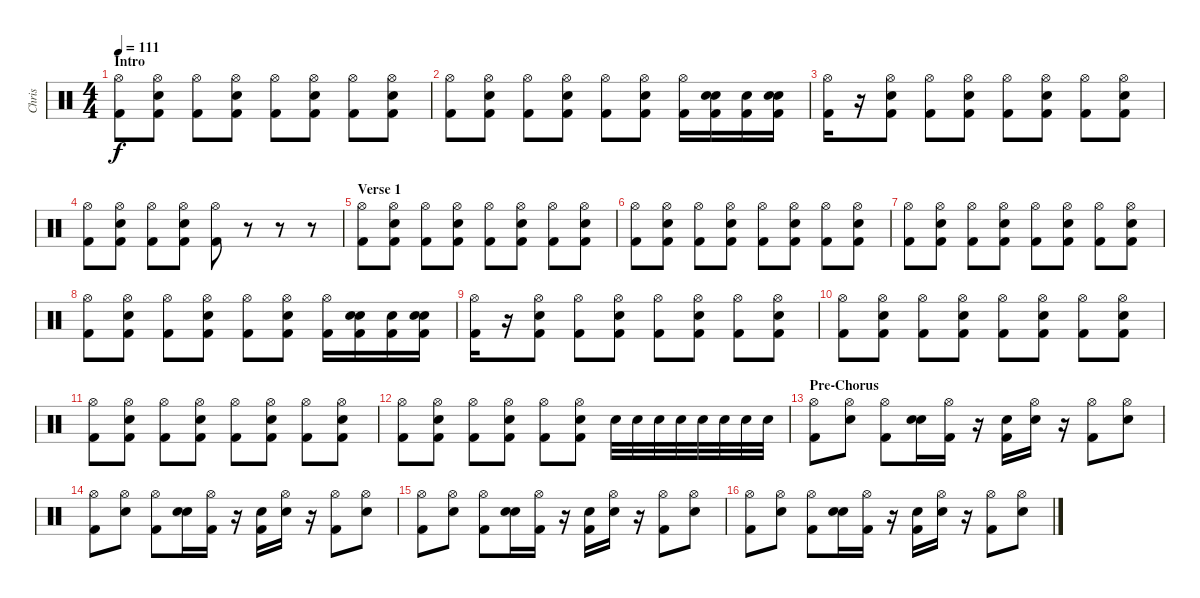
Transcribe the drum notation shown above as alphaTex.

\track ("Chris" "Chris") {instrument percussion}
\staff {score}
\articulation defaults
\ts (4 4)
\section ("" "Intro")
\tempo 111
\clef neutral
\ks c
("Hi-Hat (open)" "Kick (hit) 2").8{dy f} ("Hi-Hat (open)" "Snare (hit) 2" "Kick (hit) 2").8 ("Hi-Hat (open)" "Kick (hit) 2").8 ("Hi-Hat (open)" "Snare (hit) 2" "Kick (hit) 2").8 ("Hi-Hat (open)" "Kick (hit) 2").8 ("Hi-Hat (open)" "Snare (hit) 2" "Kick (hit) 2").8 ("Hi-Hat (open)" "Kick (hit) 2").8 ("Hi-Hat (open)" "Snare (hit) 2" "Kick (hit) 2").8 |
("Hi-Hat (open)" "Kick (hit) 2").8 ("Hi-Hat (open)" "Snare (hit) 2" "Kick (hit) 2").8 ("Hi-Hat (open)" "Kick (hit) 2").8 ("Hi-Hat (open)" "Snare (hit) 2" "Kick (hit) 2").8 ("Hi-Hat (open)" "Kick (hit) 2").8 ("Hi-Hat (open)" "Snare (hit) 2" "Kick (hit) 2").8 ("Hi-Hat (open)" "Kick (hit) 2").16 ("Snare (hit)" "Snare (hit) 2" "Kick (hit) 2").16 ("Snare (hit)" "Kick (hit) 2").16 ("Snare (hit)" "Snare (hit) 2" "Kick (hit) 2").16 |
("Hi-Hat (open)" "Kick (hit) 2").16 r.16 ("Hi-Hat (open)" "Snare (hit) 2" "Kick (hit) 2").8 ("Hi-Hat (open)" "Kick (hit) 2").8 ("Hi-Hat (open)" "Snare (hit) 2" "Kick (hit) 2").8 ("Hi-Hat (open)" "Kick (hit) 2").8 ("Hi-Hat (open)" "Snare (hit) 2" "Kick (hit) 2").8 ("Hi-Hat (open)" "Kick (hit) 2").8 ("Hi-Hat (open)" "Snare (hit) 2" "Kick (hit) 2").8 |
("Hi-Hat (open)" "Kick (hit) 2").8 ("Hi-Hat (open)" "Snare (hit) 2" "Kick (hit) 2").8 ("Hi-Hat (open)" "Kick (hit) 2").8 ("Hi-Hat (open)" "Snare (hit) 2" "Kick (hit) 2").8 ("Hi-Hat (open)" "Kick (hit) 2").8 r.8 r.8 r.8 |
\section ("" "Verse 1")
("Hi-Hat (open)" "Kick (hit) 2").8 ("Hi-Hat (open)" "Snare (hit) 2" "Kick (hit) 2").8 ("Hi-Hat (open)" "Kick (hit) 2").8 ("Hi-Hat (open)" "Snare (hit) 2" "Kick (hit) 2").8 ("Hi-Hat (open)" "Kick (hit) 2").8 ("Hi-Hat (open)" "Snare (hit) 2" "Kick (hit) 2").8 ("Hi-Hat (open)" "Kick (hit) 2").8 ("Hi-Hat (open)" "Snare (hit) 2" "Kick (hit) 2").8 |
("Hi-Hat (open)" "Kick (hit) 2").8 ("Hi-Hat (open)" "Snare (hit) 2" "Kick (hit) 2").8 ("Hi-Hat (open)" "Kick (hit) 2").8 ("Hi-Hat (open)" "Snare (hit) 2" "Kick (hit) 2").8 ("Hi-Hat (open)" "Kick (hit) 2").8 ("Hi-Hat (open)" "Snare (hit) 2" "Kick (hit) 2").8 ("Hi-Hat (open)" "Kick (hit) 2").8 ("Hi-Hat (open)" "Snare (hit) 2" "Kick (hit) 2").8 |
("Hi-Hat (open)" "Kick (hit) 2").8 ("Hi-Hat (open)" "Snare (hit) 2" "Kick (hit) 2").8 ("Hi-Hat (open)" "Kick (hit) 2").8 ("Hi-Hat (open)" "Snare (hit) 2" "Kick (hit) 2").8 ("Hi-Hat (open)" "Kick (hit) 2").8 ("Hi-Hat (open)" "Snare (hit) 2" "Kick (hit) 2").8 ("Hi-Hat (open)" "Kick (hit) 2").8 ("Hi-Hat (open)" "Snare (hit) 2" "Kick (hit) 2").8 |
("Hi-Hat (open)" "Kick (hit) 2").8 ("Hi-Hat (open)" "Snare (hit) 2" "Kick (hit) 2").8 ("Hi-Hat (open)" "Kick (hit) 2").8 ("Hi-Hat (open)" "Snare (hit) 2" "Kick (hit) 2").8 ("Hi-Hat (open)" "Kick (hit) 2").8 ("Hi-Hat (open)" "Snare (hit) 2" "Kick (hit) 2").8 ("Hi-Hat (open)" "Kick (hit) 2").16 ("Snare (hit)" "Snare (hit) 2" "Kick (hit) 2").16 ("Snare (hit)" "Kick (hit) 2").16 ("Snare (hit)" "Snare (hit) 2" "Kick (hit) 2").16 |
("Hi-Hat (open)" "Kick (hit) 2").16 r.16 ("Hi-Hat (open)" "Snare (hit) 2" "Kick (hit) 2").8 ("Hi-Hat (open)" "Kick (hit) 2").8 ("Hi-Hat (open)" "Snare (hit) 2" "Kick (hit) 2").8 ("Hi-Hat (open)" "Kick (hit) 2").8 ("Hi-Hat (open)" "Snare (hit) 2" "Kick (hit) 2").8 ("Hi-Hat (open)" "Kick (hit) 2").8 ("Hi-Hat (open)" "Snare (hit) 2" "Kick (hit) 2").8 |
("Hi-Hat (open)" "Kick (hit) 2").8 ("Hi-Hat (open)" "Snare (hit) 2" "Kick (hit) 2").8 ("Hi-Hat (open)" "Kick (hit) 2").8 ("Hi-Hat (open)" "Snare (hit) 2" "Kick (hit) 2").8 ("Hi-Hat (open)" "Kick (hit) 2").8 ("Hi-Hat (open)" "Snare (hit) 2" "Kick (hit) 2").8 ("Hi-Hat (open)" "Kick (hit) 2").8 ("Hi-Hat (open)" "Snare (hit) 2" "Kick (hit) 2").8 |
("Hi-Hat (open)" "Kick (hit) 2").8 ("Hi-Hat (open)" "Snare (hit) 2" "Kick (hit) 2").8 ("Hi-Hat (open)" "Kick (hit) 2").8 ("Hi-Hat (open)" "Snare (hit) 2" "Kick (hit) 2").8 ("Hi-Hat (open)" "Kick (hit) 2").8 ("Hi-Hat (open)" "Snare (hit) 2" "Kick (hit) 2").8 ("Hi-Hat (open)" "Kick (hit) 2").8 ("Hi-Hat (open)" "Snare (hit) 2" "Kick (hit) 2").8 |
("Hi-Hat (open)" "Kick (hit) 2").8 ("Hi-Hat (open)" "Snare (hit) 2" "Kick (hit) 2").8 ("Hi-Hat (open)" "Kick (hit) 2").8 ("Hi-Hat (open)" "Snare (hit) 2" "Kick (hit) 2").8 ("Hi-Hat (open)" "Kick (hit) 2").8 ("Hi-Hat (open)" "Snare (hit) 2" "Kick (hit) 2").8 "Snare (hit) 2".32 "Snare (hit) 2".32 "Snare (hit) 2".32 "Snare (hit) 2".32 "Snare (hit) 2".32 "Snare (hit) 2".32 "Snare (hit) 2".32 "Snare (hit) 2".32 |
\section ("" "Pre-Chorus")
("Hi-Hat (open)" "Kick (hit) 2").8 ("Hi-Hat (open)" "Snare (hit) 2").8 ("Hi-Hat (open)" "Kick (hit) 2").8 ("Snare (hit)" "Snare (hit) 2").16 ("Hi-Hat (open)" "Kick (hit) 2").16 r.16 ("Snare (hit)" "Kick (hit) 2").16 ("Hi-Hat (open)" "Snare (hit) 2").16 r.16 ("Hi-Hat (open)" "Kick (hit) 2").8 ("Hi-Hat (open)" "Snare (hit) 2").8 |
("Hi-Hat (open)" "Kick (hit) 2").8 ("Hi-Hat (open)" "Snare (hit) 2").8 ("Hi-Hat (open)" "Kick (hit) 2").8 ("Snare (hit)" "Snare (hit) 2").16 ("Hi-Hat (open)" "Kick (hit) 2").16 r.16 ("Snare (hit)" "Kick (hit) 2").16 ("Hi-Hat (open)" "Snare (hit) 2").16 r.16 ("Hi-Hat (open)" "Kick (hit) 2").8 ("Hi-Hat (open)" "Snare (hit) 2").8 |
("Hi-Hat (open)" "Kick (hit) 2").8 ("Hi-Hat (open)" "Snare (hit) 2").8 ("Hi-Hat (open)" "Kick (hit) 2").8 ("Snare (hit)" "Snare (hit) 2").16 ("Hi-Hat (open)" "Kick (hit) 2").16 r.16 ("Snare (hit)" "Kick (hit) 2").16 ("Hi-Hat (open)" "Snare (hit) 2").16 r.16 ("Hi-Hat (open)" "Kick (hit) 2").8 ("Hi-Hat (open)" "Snare (hit) 2").8 |
("Hi-Hat (open)" "Kick (hit) 2").8 ("Hi-Hat (open)" "Snare (hit) 2").8 ("Hi-Hat (open)" "Kick (hit) 2").8 ("Snare (hit)" "Snare (hit) 2").16 ("Hi-Hat (open)" "Kick (hit) 2").16 r.16 ("Snare (hit)" "Kick (hit) 2").16 ("Hi-Hat (open)" "Snare (hit) 2").16 r.16 ("Hi-Hat (open)" "Kick (hit) 2").8 ("Hi-Hat (open)" "Snare (hit) 2").8
